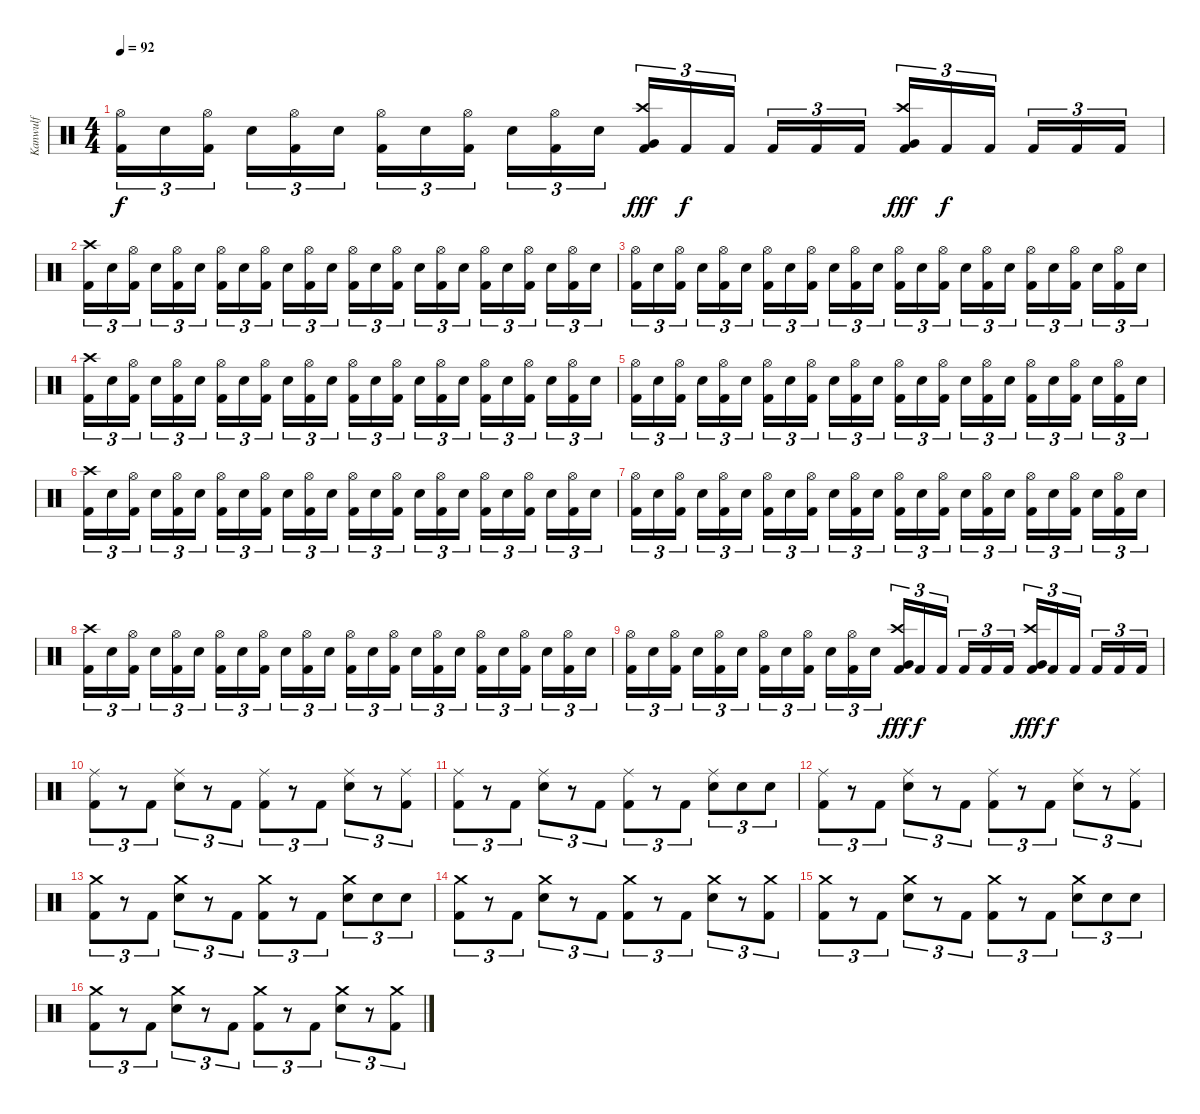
\track ("Kanwulf" "Kanwulf") {instrument percussion}
\staff {score}
\articulation defaults
\ts (4 4)
\tempo 92
\clef neutral
\ks c
("Hi-Hat (open)" "Kick (hit) 2").16{tu (3 2) dy f} "Electric Snare (hit)".16{tu (3 2)} ("Hi-Hat (open)" "Kick (hit) 2").16{tu (3 2)} "Electric Snare (hit)".16{tu (3 2)} ("Hi-Hat (open)" "Kick (hit) 2").16{tu (3 2)} "Electric Snare (hit)".16{tu (3 2)} ("Hi-Hat (open)" "Kick (hit) 2").16{tu (3 2)} "Electric Snare (hit)".16{tu (3 2)} ("Hi-Hat (open)" "Kick (hit) 2").16{tu (3 2)} "Electric Snare (hit)".16{tu (3 2)} ("Hi-Hat (open)" "Kick (hit) 2").16{tu (3 2)} "Electric Snare (hit)".16{tu (3 2)} ("Crash high (hit)" "Very Low Tom (hit)" "Kick (hit) 2").16{tu (3 2) dy fff} "Kick (hit) 2".16{tu (3 2) dy f} "Kick (hit) 2".16{tu (3 2)} "Kick (hit) 2".16{tu (3 2)} "Kick (hit) 2".16{tu (3 2)} "Kick (hit) 2".16{tu (3 2)} ("Crash high (hit)" "Very Low Tom (hit)" "Kick (hit) 2").16{tu (3 2) dy fff} "Kick (hit) 2".16{tu (3 2) dy f} "Kick (hit) 2".16{tu (3 2)} "Kick (hit) 2".16{tu (3 2)} "Kick (hit) 2".16{tu (3 2)} "Kick (hit) 2".16{tu (3 2)} |
("Crash high (hit)" "Kick (hit) 2").16{tu (3 2)} "Electric Snare (hit)".16{tu (3 2)} ("Hi-Hat (open)" "Kick (hit) 2").16{tu (3 2)} "Electric Snare (hit)".16{tu (3 2)} ("Hi-Hat (open)" "Kick (hit) 2").16{tu (3 2)} "Electric Snare (hit)".16{tu (3 2)} ("Hi-Hat (open)" "Kick (hit) 2").16{tu (3 2)} "Electric Snare (hit)".16{tu (3 2)} ("Hi-Hat (open)" "Kick (hit) 2").16{tu (3 2)} "Electric Snare (hit)".16{tu (3 2)} ("Hi-Hat (open)" "Kick (hit) 2").16{tu (3 2)} "Electric Snare (hit)".16{tu (3 2)} ("Hi-Hat (open)" "Kick (hit) 2").16{tu (3 2)} "Electric Snare (hit)".16{tu (3 2)} ("Hi-Hat (open)" "Kick (hit) 2").16{tu (3 2)} "Electric Snare (hit)".16{tu (3 2)} ("Hi-Hat (open)" "Kick (hit) 2").16{tu (3 2)} "Electric Snare (hit)".16{tu (3 2)} ("Hi-Hat (open)" "Kick (hit) 2").16{tu (3 2)} "Electric Snare (hit)".16{tu (3 2)} ("Hi-Hat (open)" "Kick (hit) 2").16{tu (3 2)} "Electric Snare (hit)".16{tu (3 2)} ("Hi-Hat (open)" "Kick (hit) 2").16{tu (3 2)} "Electric Snare (hit)".16{tu (3 2)} |
("Hi-Hat (open)" "Kick (hit) 2").16{tu (3 2)} "Electric Snare (hit)".16{tu (3 2)} ("Hi-Hat (open)" "Kick (hit) 2").16{tu (3 2)} "Electric Snare (hit)".16{tu (3 2)} ("Hi-Hat (open)" "Kick (hit) 2").16{tu (3 2)} "Electric Snare (hit)".16{tu (3 2)} ("Hi-Hat (open)" "Kick (hit) 2").16{tu (3 2)} "Electric Snare (hit)".16{tu (3 2)} ("Hi-Hat (open)" "Kick (hit) 2").16{tu (3 2)} "Electric Snare (hit)".16{tu (3 2)} ("Hi-Hat (open)" "Kick (hit) 2").16{tu (3 2)} "Electric Snare (hit)".16{tu (3 2)} ("Hi-Hat (open)" "Kick (hit) 2").16{tu (3 2)} "Electric Snare (hit)".16{tu (3 2)} ("Hi-Hat (open)" "Kick (hit) 2").16{tu (3 2)} "Electric Snare (hit)".16{tu (3 2)} ("Hi-Hat (open)" "Kick (hit) 2").16{tu (3 2)} "Electric Snare (hit)".16{tu (3 2)} ("Hi-Hat (open)" "Kick (hit) 2").16{tu (3 2)} "Electric Snare (hit)".16{tu (3 2)} ("Hi-Hat (open)" "Kick (hit) 2").16{tu (3 2)} "Electric Snare (hit)".16{tu (3 2)} ("Hi-Hat (open)" "Kick (hit) 2").16{tu (3 2)} "Electric Snare (hit)".16{tu (3 2)} |
("Crash high (hit)" "Kick (hit) 2").16{tu (3 2)} "Electric Snare (hit)".16{tu (3 2)} ("Hi-Hat (open)" "Kick (hit) 2").16{tu (3 2)} "Electric Snare (hit)".16{tu (3 2)} ("Hi-Hat (open)" "Kick (hit) 2").16{tu (3 2)} "Electric Snare (hit)".16{tu (3 2)} ("Hi-Hat (open)" "Kick (hit) 2").16{tu (3 2)} "Electric Snare (hit)".16{tu (3 2)} ("Hi-Hat (open)" "Kick (hit) 2").16{tu (3 2)} "Electric Snare (hit)".16{tu (3 2)} ("Hi-Hat (open)" "Kick (hit) 2").16{tu (3 2)} "Electric Snare (hit)".16{tu (3 2)} ("Hi-Hat (open)" "Kick (hit) 2").16{tu (3 2)} "Electric Snare (hit)".16{tu (3 2)} ("Hi-Hat (open)" "Kick (hit) 2").16{tu (3 2)} "Electric Snare (hit)".16{tu (3 2)} ("Hi-Hat (open)" "Kick (hit) 2").16{tu (3 2)} "Electric Snare (hit)".16{tu (3 2)} ("Hi-Hat (open)" "Kick (hit) 2").16{tu (3 2)} "Electric Snare (hit)".16{tu (3 2)} ("Hi-Hat (open)" "Kick (hit) 2").16{tu (3 2)} "Electric Snare (hit)".16{tu (3 2)} ("Hi-Hat (open)" "Kick (hit) 2").16{tu (3 2)} "Electric Snare (hit)".16{tu (3 2)} |
("Hi-Hat (open)" "Kick (hit) 2").16{tu (3 2)} "Electric Snare (hit)".16{tu (3 2)} ("Hi-Hat (open)" "Kick (hit) 2").16{tu (3 2)} "Electric Snare (hit)".16{tu (3 2)} ("Hi-Hat (open)" "Kick (hit) 2").16{tu (3 2)} "Electric Snare (hit)".16{tu (3 2)} ("Hi-Hat (open)" "Kick (hit) 2").16{tu (3 2)} "Electric Snare (hit)".16{tu (3 2)} ("Hi-Hat (open)" "Kick (hit) 2").16{tu (3 2)} "Electric Snare (hit)".16{tu (3 2)} ("Hi-Hat (open)" "Kick (hit) 2").16{tu (3 2)} "Electric Snare (hit)".16{tu (3 2)} ("Hi-Hat (open)" "Kick (hit) 2").16{tu (3 2)} "Electric Snare (hit)".16{tu (3 2)} ("Hi-Hat (open)" "Kick (hit) 2").16{tu (3 2)} "Electric Snare (hit)".16{tu (3 2)} ("Hi-Hat (open)" "Kick (hit) 2").16{tu (3 2)} "Electric Snare (hit)".16{tu (3 2)} ("Hi-Hat (open)" "Kick (hit) 2").16{tu (3 2)} "Electric Snare (hit)".16{tu (3 2)} ("Hi-Hat (open)" "Kick (hit) 2").16{tu (3 2)} "Electric Snare (hit)".16{tu (3 2)} ("Hi-Hat (open)" "Kick (hit) 2").16{tu (3 2)} "Electric Snare (hit)".16{tu (3 2)} |
("Crash high (hit)" "Kick (hit) 2").16{tu (3 2)} "Electric Snare (hit)".16{tu (3 2)} ("Hi-Hat (open)" "Kick (hit) 2").16{tu (3 2)} "Electric Snare (hit)".16{tu (3 2)} ("Hi-Hat (open)" "Kick (hit) 2").16{tu (3 2)} "Electric Snare (hit)".16{tu (3 2)} ("Hi-Hat (open)" "Kick (hit) 2").16{tu (3 2)} "Electric Snare (hit)".16{tu (3 2)} ("Hi-Hat (open)" "Kick (hit) 2").16{tu (3 2)} "Electric Snare (hit)".16{tu (3 2)} ("Hi-Hat (open)" "Kick (hit) 2").16{tu (3 2)} "Electric Snare (hit)".16{tu (3 2)} ("Hi-Hat (open)" "Kick (hit) 2").16{tu (3 2)} "Electric Snare (hit)".16{tu (3 2)} ("Hi-Hat (open)" "Kick (hit) 2").16{tu (3 2)} "Electric Snare (hit)".16{tu (3 2)} ("Hi-Hat (open)" "Kick (hit) 2").16{tu (3 2)} "Electric Snare (hit)".16{tu (3 2)} ("Hi-Hat (open)" "Kick (hit) 2").16{tu (3 2)} "Electric Snare (hit)".16{tu (3 2)} ("Hi-Hat (open)" "Kick (hit) 2").16{tu (3 2)} "Electric Snare (hit)".16{tu (3 2)} ("Hi-Hat (open)" "Kick (hit) 2").16{tu (3 2)} "Electric Snare (hit)".16{tu (3 2)} |
("Hi-Hat (open)" "Kick (hit) 2").16{tu (3 2)} "Electric Snare (hit)".16{tu (3 2)} ("Hi-Hat (open)" "Kick (hit) 2").16{tu (3 2)} "Electric Snare (hit)".16{tu (3 2)} ("Hi-Hat (open)" "Kick (hit) 2").16{tu (3 2)} "Electric Snare (hit)".16{tu (3 2)} ("Hi-Hat (open)" "Kick (hit) 2").16{tu (3 2)} "Electric Snare (hit)".16{tu (3 2)} ("Hi-Hat (open)" "Kick (hit) 2").16{tu (3 2)} "Electric Snare (hit)".16{tu (3 2)} ("Hi-Hat (open)" "Kick (hit) 2").16{tu (3 2)} "Electric Snare (hit)".16{tu (3 2)} ("Hi-Hat (open)" "Kick (hit) 2").16{tu (3 2)} "Electric Snare (hit)".16{tu (3 2)} ("Hi-Hat (open)" "Kick (hit) 2").16{tu (3 2)} "Electric Snare (hit)".16{tu (3 2)} ("Hi-Hat (open)" "Kick (hit) 2").16{tu (3 2)} "Electric Snare (hit)".16{tu (3 2)} ("Hi-Hat (open)" "Kick (hit) 2").16{tu (3 2)} "Electric Snare (hit)".16{tu (3 2)} ("Hi-Hat (open)" "Kick (hit) 2").16{tu (3 2)} "Electric Snare (hit)".16{tu (3 2)} ("Hi-Hat (open)" "Kick (hit) 2").16{tu (3 2)} "Electric Snare (hit)".16{tu (3 2)} |
("Crash high (hit)" "Kick (hit) 2").16{tu (3 2)} "Electric Snare (hit)".16{tu (3 2)} ("Hi-Hat (open)" "Kick (hit) 2").16{tu (3 2)} "Electric Snare (hit)".16{tu (3 2)} ("Hi-Hat (open)" "Kick (hit) 2").16{tu (3 2)} "Electric Snare (hit)".16{tu (3 2)} ("Hi-Hat (open)" "Kick (hit) 2").16{tu (3 2)} "Electric Snare (hit)".16{tu (3 2)} ("Hi-Hat (open)" "Kick (hit) 2").16{tu (3 2)} "Electric Snare (hit)".16{tu (3 2)} ("Hi-Hat (open)" "Kick (hit) 2").16{tu (3 2)} "Electric Snare (hit)".16{tu (3 2)} ("Hi-Hat (open)" "Kick (hit) 2").16{tu (3 2)} "Electric Snare (hit)".16{tu (3 2)} ("Hi-Hat (open)" "Kick (hit) 2").16{tu (3 2)} "Electric Snare (hit)".16{tu (3 2)} ("Hi-Hat (open)" "Kick (hit) 2").16{tu (3 2)} "Electric Snare (hit)".16{tu (3 2)} ("Hi-Hat (open)" "Kick (hit) 2").16{tu (3 2)} "Electric Snare (hit)".16{tu (3 2)} ("Hi-Hat (open)" "Kick (hit) 2").16{tu (3 2)} "Electric Snare (hit)".16{tu (3 2)} ("Hi-Hat (open)" "Kick (hit) 2").16{tu (3 2)} "Electric Snare (hit)".16{tu (3 2)} |
("Hi-Hat (open)" "Kick (hit) 2").16{tu (3 2)} "Electric Snare (hit)".16{tu (3 2)} ("Hi-Hat (open)" "Kick (hit) 2").16{tu (3 2)} "Electric Snare (hit)".16{tu (3 2)} ("Hi-Hat (open)" "Kick (hit) 2").16{tu (3 2)} "Electric Snare (hit)".16{tu (3 2)} ("Hi-Hat (open)" "Kick (hit) 2").16{tu (3 2)} "Electric Snare (hit)".16{tu (3 2)} ("Hi-Hat (open)" "Kick (hit) 2").16{tu (3 2)} "Electric Snare (hit)".16{tu (3 2)} ("Hi-Hat (open)" "Kick (hit) 2").16{tu (3 2)} "Electric Snare (hit)".16{tu (3 2)} ("Crash high (hit)" "Very Low Tom (hit)" "Kick (hit) 2").16{tu (3 2) dy fff} "Kick (hit) 2".16{tu (3 2) dy f} "Kick (hit) 2".16{tu (3 2)} "Kick (hit) 2".16{tu (3 2)} "Kick (hit) 2".16{tu (3 2)} "Kick (hit) 2".16{tu (3 2)} ("Crash high (hit)" "Very Low Tom (hit)" "Kick (hit) 2").16{tu (3 2) dy fff} "Kick (hit) 2".16{tu (3 2) dy f} "Kick (hit) 2".16{tu (3 2)} "Kick (hit) 2".16{tu (3 2)} "Kick (hit) 2".16{tu (3 2)} "Kick (hit) 2".16{tu (3 2)} |
("Ride (middle)" "Kick (hit) 2").8{tu (3 2)} r.8{tu (3 2)} "Kick (hit) 2".8{tu (3 2)} ("Ride (middle)" "Electric Snare (hit)").8{tu (3 2)} r.8{tu (3 2)} "Kick (hit) 2".8{tu (3 2)} ("Ride (middle)" "Kick (hit) 2").8{tu (3 2)} r.8{tu (3 2)} "Kick (hit) 2".8{tu (3 2)} ("Ride (middle)" "Electric Snare (hit)").8{tu (3 2)} r.8{tu (3 2)} ("Ride (middle)" "Kick (hit) 2").8{tu (3 2)} |
("Ride (middle)" "Kick (hit) 2").8{tu (3 2)} r.8{tu (3 2)} "Kick (hit) 2".8{tu (3 2)} ("Ride (middle)" "Electric Snare (hit)").8{tu (3 2)} r.8{tu (3 2)} "Kick (hit) 2".8{tu (3 2)} ("Ride (middle)" "Kick (hit) 2").8{tu (3 2)} r.8{tu (3 2)} "Kick (hit) 2".8{tu (3 2)} ("Ride (middle)" "Electric Snare (hit)").8{tu (3 2)} "Electric Snare (hit)".8{tu (3 2)} "Electric Snare (hit)".8{tu (3 2)} |
("Ride (middle)" "Kick (hit) 2").8{tu (3 2)} r.8{tu (3 2)} "Kick (hit) 2".8{tu (3 2)} ("Ride (middle)" "Electric Snare (hit)").8{tu (3 2)} r.8{tu (3 2)} "Kick (hit) 2".8{tu (3 2)} ("Ride (middle)" "Kick (hit) 2").8{tu (3 2)} r.8{tu (3 2)} "Kick (hit) 2".8{tu (3 2)} ("Ride (middle)" "Electric Snare (hit)").8{tu (3 2)} r.8{tu (3 2)} ("Ride (middle)" "Kick (hit) 2").8{tu (3 2)} |
("Crash medium (hit)" "Kick (hit) 2").8{tu (3 2)} r.8{tu (3 2)} "Kick (hit) 2".8{tu (3 2)} ("Crash medium (hit)" "Electric Snare (hit)").8{tu (3 2)} r.8{tu (3 2)} "Kick (hit) 2".8{tu (3 2)} ("Crash medium (hit)" "Kick (hit) 2").8{tu (3 2)} r.8{tu (3 2)} "Kick (hit) 2".8{tu (3 2)} ("Crash medium (hit)" "Electric Snare (hit)").8{tu (3 2)} "Electric Snare (hit)".8{tu (3 2)} "Electric Snare (hit)".8{tu (3 2)} |
("Crash medium (hit)" "Kick (hit) 2").8{tu (3 2)} r.8{tu (3 2)} "Kick (hit) 2".8{tu (3 2)} ("Crash medium (hit)" "Electric Snare (hit)").8{tu (3 2)} r.8{tu (3 2)} "Kick (hit) 2".8{tu (3 2)} ("Crash medium (hit)" "Kick (hit) 2").8{tu (3 2)} r.8{tu (3 2)} "Kick (hit) 2".8{tu (3 2)} ("Crash medium (hit)" "Electric Snare (hit)").8{tu (3 2)} r.8{tu (3 2)} ("Crash medium (hit)" "Kick (hit) 2").8{tu (3 2)} |
("Crash medium (hit)" "Kick (hit) 2").8{tu (3 2)} r.8{tu (3 2)} "Kick (hit) 2".8{tu (3 2)} ("Crash medium (hit)" "Electric Snare (hit)").8{tu (3 2)} r.8{tu (3 2)} "Kick (hit) 2".8{tu (3 2)} ("Crash medium (hit)" "Kick (hit) 2").8{tu (3 2)} r.8{tu (3 2)} "Kick (hit) 2".8{tu (3 2)} ("Crash medium (hit)" "Electric Snare (hit)").8{tu (3 2)} "Electric Snare (hit)".8{tu (3 2)} "Electric Snare (hit)".8{tu (3 2)} |
("Crash medium (hit)" "Kick (hit) 2").8{tu (3 2)} r.8{tu (3 2)} "Kick (hit) 2".8{tu (3 2)} ("Crash medium (hit)" "Electric Snare (hit)").8{tu (3 2)} r.8{tu (3 2)} "Kick (hit) 2".8{tu (3 2)} ("Crash medium (hit)" "Kick (hit) 2").8{tu (3 2)} r.8{tu (3 2)} "Kick (hit) 2".8{tu (3 2)} ("Crash medium (hit)" "Electric Snare (hit)").8{tu (3 2)} r.8{tu (3 2)} ("Crash medium (hit)" "Kick (hit) 2").8{tu (3 2)}
